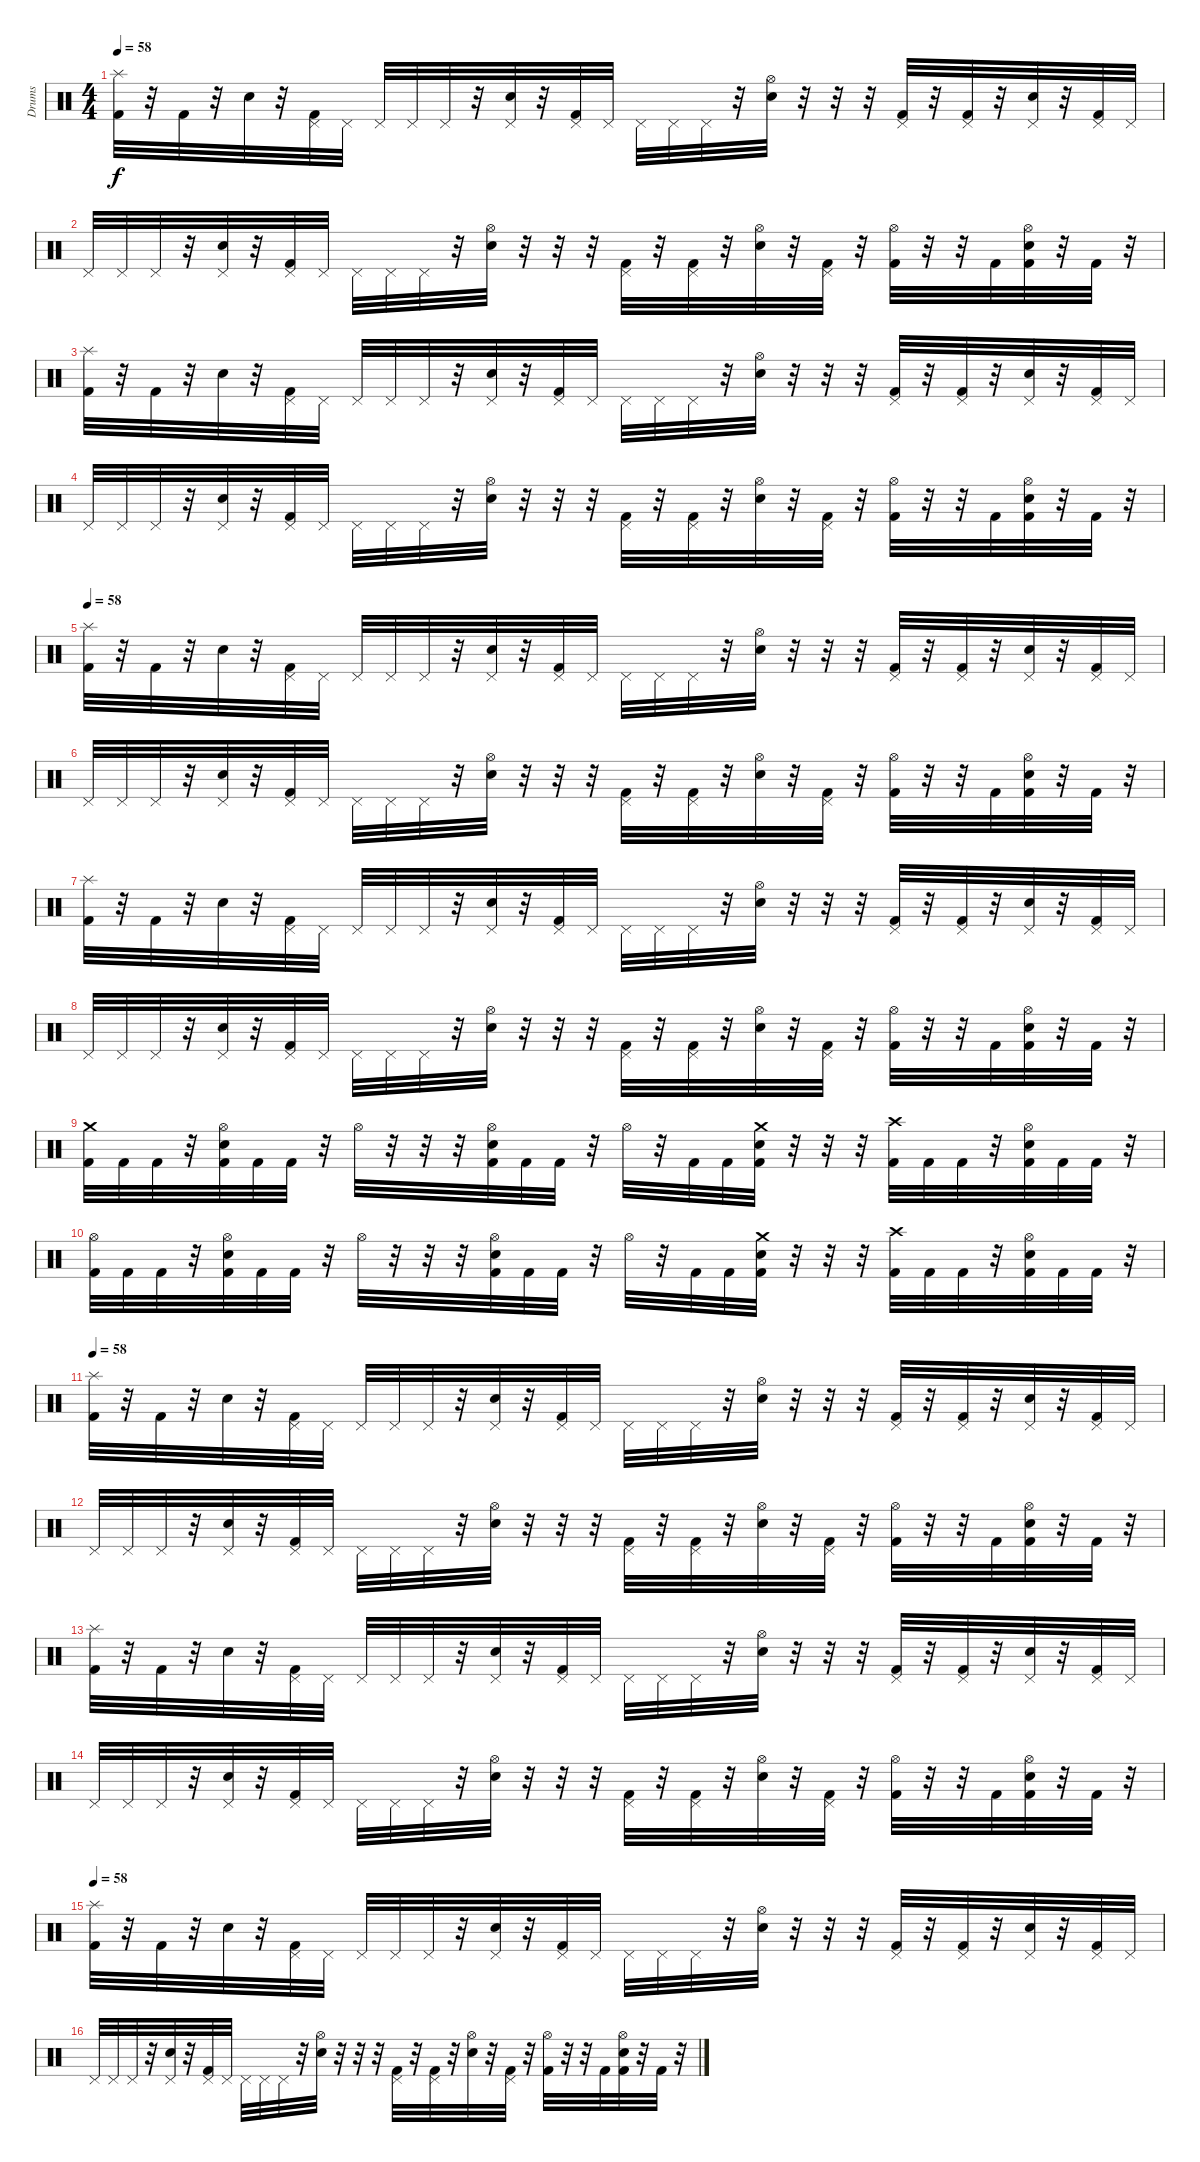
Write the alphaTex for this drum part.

\track ("Drums" "Drums") {instrument percussion}
\staff {score}
\articulation defaults
\ts (4 4)
\tempo 58
\clef neutral
\ks c
("Splash (hit)" "Kick (hit) 2").32{dy f} r.32 "Kick (hit) 2".32 r.32 "Electric Snare (hit)".32 r.32 ("Pedal Hi-Hat (hit)" "Kick (hit) 2").32 "Pedal Hi-Hat (hit)".32 "Pedal Hi-Hat (hit)".32 "Pedal Hi-Hat (hit)".32 "Pedal Hi-Hat (hit)".32 r.32 ("Pedal Hi-Hat (hit)" "Electric Snare (hit)").32 r.32 ("Pedal Hi-Hat (hit)" "Kick (hit) 2").32 "Pedal Hi-Hat (hit)".32 "Pedal Hi-Hat (hit)".32 "Pedal Hi-Hat (hit)".32 "Pedal Hi-Hat (hit)".32 r.32 ("Hi-Hat (open)" "Electric Snare (hit)").32 r.32 r.32 r.32 ("Pedal Hi-Hat (hit)" "Kick (hit) 2").32 r.32 ("Pedal Hi-Hat (hit)" "Kick (hit) 2").32 r.32 ("Pedal Hi-Hat (hit)" "Electric Snare (hit)").32 r.32 ("Pedal Hi-Hat (hit)" "Kick (hit) 2").32 "Pedal Hi-Hat (hit)".32 |
"Pedal Hi-Hat (hit)".32 "Pedal Hi-Hat (hit)".32 "Pedal Hi-Hat (hit)".32 r.32 ("Pedal Hi-Hat (hit)" "Electric Snare (hit)").32 r.32 ("Pedal Hi-Hat (hit)" "Kick (hit) 2").32 "Pedal Hi-Hat (hit)".32 "Pedal Hi-Hat (hit)".32 "Pedal Hi-Hat (hit)".32 "Pedal Hi-Hat (hit)".32 r.32 ("Hi-Hat (open)" "Electric Snare (hit)").32 r.32 r.32 r.32 ("Pedal Hi-Hat (hit)" "Kick (hit) 2").32 r.32 ("Pedal Hi-Hat (hit)" "Kick (hit) 2").32 r.32 ("Hi-Hat (open)" "Electric Snare (hit)").32 r.32 ("Pedal Hi-Hat (hit)" "Kick (hit) 2").32 r.32 ("Hi-Hat (open)" "Kick (hit) 2").32 r.32 r.32 "Kick (hit) 2".32 ("Hi-Hat (open)" "Electric Snare (hit)" "Kick (hit) 2").32 r.32 "Kick (hit) 2".32 r.32 |
("Splash (hit)" "Kick (hit) 2").32 r.32 "Kick (hit) 2".32 r.32 "Electric Snare (hit)".32 r.32 ("Pedal Hi-Hat (hit)" "Kick (hit) 2").32 "Pedal Hi-Hat (hit)".32 "Pedal Hi-Hat (hit)".32 "Pedal Hi-Hat (hit)".32 "Pedal Hi-Hat (hit)".32 r.32 ("Pedal Hi-Hat (hit)" "Electric Snare (hit)").32 r.32 ("Pedal Hi-Hat (hit)" "Kick (hit) 2").32 "Pedal Hi-Hat (hit)".32 "Pedal Hi-Hat (hit)".32 "Pedal Hi-Hat (hit)".32 "Pedal Hi-Hat (hit)".32 r.32 ("Hi-Hat (open)" "Electric Snare (hit)").32 r.32 r.32 r.32 ("Pedal Hi-Hat (hit)" "Kick (hit) 2").32 r.32 ("Pedal Hi-Hat (hit)" "Kick (hit) 2").32 r.32 ("Pedal Hi-Hat (hit)" "Electric Snare (hit)").32 r.32 ("Pedal Hi-Hat (hit)" "Kick (hit) 2").32 "Pedal Hi-Hat (hit)".32 |
"Pedal Hi-Hat (hit)".32 "Pedal Hi-Hat (hit)".32 "Pedal Hi-Hat (hit)".32 r.32 ("Pedal Hi-Hat (hit)" "Electric Snare (hit)").32 r.32 ("Pedal Hi-Hat (hit)" "Kick (hit) 2").32 "Pedal Hi-Hat (hit)".32 "Pedal Hi-Hat (hit)".32 "Pedal Hi-Hat (hit)".32 "Pedal Hi-Hat (hit)".32 r.32 ("Hi-Hat (open)" "Electric Snare (hit)").32 r.32 r.32 r.32 ("Pedal Hi-Hat (hit)" "Kick (hit) 2").32 r.32 ("Pedal Hi-Hat (hit)" "Kick (hit) 2").32 r.32 ("Hi-Hat (open)" "Electric Snare (hit)").32 r.32 ("Pedal Hi-Hat (hit)" "Kick (hit) 2").32 r.32 ("Hi-Hat (open)" "Kick (hit) 2").32 r.32 r.32 "Kick (hit) 2".32 ("Hi-Hat (open)" "Electric Snare (hit)" "Kick (hit) 2").32 r.32 "Kick (hit) 2".32 r.32 |
\tempo 58
("Splash (hit)" "Kick (hit) 2").32 r.32 "Kick (hit) 2".32 r.32 "Electric Snare (hit)".32 r.32 ("Pedal Hi-Hat (hit)" "Kick (hit) 2").32 "Pedal Hi-Hat (hit)".32 "Pedal Hi-Hat (hit)".32 "Pedal Hi-Hat (hit)".32 "Pedal Hi-Hat (hit)".32 r.32 ("Pedal Hi-Hat (hit)" "Electric Snare (hit)").32 r.32 ("Pedal Hi-Hat (hit)" "Kick (hit) 2").32 "Pedal Hi-Hat (hit)".32 "Pedal Hi-Hat (hit)".32 "Pedal Hi-Hat (hit)".32 "Pedal Hi-Hat (hit)".32 r.32 ("Hi-Hat (open)" "Electric Snare (hit)").32 r.32 r.32 r.32 ("Pedal Hi-Hat (hit)" "Kick (hit) 2").32 r.32 ("Pedal Hi-Hat (hit)" "Kick (hit) 2").32 r.32 ("Pedal Hi-Hat (hit)" "Electric Snare (hit)").32 r.32 ("Pedal Hi-Hat (hit)" "Kick (hit) 2").32 "Pedal Hi-Hat (hit)".32 |
"Pedal Hi-Hat (hit)".32 "Pedal Hi-Hat (hit)".32 "Pedal Hi-Hat (hit)".32 r.32 ("Pedal Hi-Hat (hit)" "Electric Snare (hit)").32 r.32 ("Pedal Hi-Hat (hit)" "Kick (hit) 2").32 "Pedal Hi-Hat (hit)".32 "Pedal Hi-Hat (hit)".32 "Pedal Hi-Hat (hit)".32 "Pedal Hi-Hat (hit)".32 r.32 ("Hi-Hat (open)" "Electric Snare (hit)").32 r.32 r.32 r.32 ("Pedal Hi-Hat (hit)" "Kick (hit) 2").32 r.32 ("Pedal Hi-Hat (hit)" "Kick (hit) 2").32 r.32 ("Hi-Hat (open)" "Electric Snare (hit)").32 r.32 ("Pedal Hi-Hat (hit)" "Kick (hit) 2").32 r.32 ("Hi-Hat (open)" "Kick (hit) 2").32 r.32 r.32 "Kick (hit) 2".32 ("Hi-Hat (open)" "Electric Snare (hit)" "Kick (hit) 2").32 r.32 "Kick (hit) 2".32 r.32 |
("Splash (hit)" "Kick (hit) 2").32 r.32 "Kick (hit) 2".32 r.32 "Electric Snare (hit)".32 r.32 ("Pedal Hi-Hat (hit)" "Kick (hit) 2").32 "Pedal Hi-Hat (hit)".32 "Pedal Hi-Hat (hit)".32 "Pedal Hi-Hat (hit)".32 "Pedal Hi-Hat (hit)".32 r.32 ("Pedal Hi-Hat (hit)" "Electric Snare (hit)").32 r.32 ("Pedal Hi-Hat (hit)" "Kick (hit) 2").32 "Pedal Hi-Hat (hit)".32 "Pedal Hi-Hat (hit)".32 "Pedal Hi-Hat (hit)".32 "Pedal Hi-Hat (hit)".32 r.32 ("Hi-Hat (open)" "Electric Snare (hit)").32 r.32 r.32 r.32 ("Pedal Hi-Hat (hit)" "Kick (hit) 2").32 r.32 ("Pedal Hi-Hat (hit)" "Kick (hit) 2").32 r.32 ("Pedal Hi-Hat (hit)" "Electric Snare (hit)").32 r.32 ("Pedal Hi-Hat (hit)" "Kick (hit) 2").32 "Pedal Hi-Hat (hit)".32 |
"Pedal Hi-Hat (hit)".32 "Pedal Hi-Hat (hit)".32 "Pedal Hi-Hat (hit)".32 r.32 ("Pedal Hi-Hat (hit)" "Electric Snare (hit)").32 r.32 ("Pedal Hi-Hat (hit)" "Kick (hit) 2").32 "Pedal Hi-Hat (hit)".32 "Pedal Hi-Hat (hit)".32 "Pedal Hi-Hat (hit)".32 "Pedal Hi-Hat (hit)".32 r.32 ("Hi-Hat (open)" "Electric Snare (hit)").32 r.32 r.32 r.32 ("Pedal Hi-Hat (hit)" "Kick (hit) 2").32 r.32 ("Pedal Hi-Hat (hit)" "Kick (hit) 2").32 r.32 ("Hi-Hat (open)" "Electric Snare (hit)").32 r.32 ("Pedal Hi-Hat (hit)" "Kick (hit) 2").32 r.32 ("Hi-Hat (open)" "Kick (hit) 2").32 r.32 r.32 "Kick (hit) 2".32 ("Hi-Hat (open)" "Electric Snare (hit)" "Kick (hit) 2").32 r.32 "Kick (hit) 2".32 r.32 |
("Crash medium (hit)" "Kick (hit) 2").32 "Kick (hit) 2".32 "Kick (hit) 2".32 r.32 ("Hi-Hat (open)" "Electric Snare (hit)" "Kick (hit) 2").32 "Kick (hit) 2".32 "Kick (hit) 2".32 r.32 "Hi-Hat (open)".32 r.32 r.32 r.32 ("Hi-Hat (open)" "Electric Snare (hit)" "Kick (hit) 2").32 "Kick (hit) 2".32 "Kick (hit) 2".32 r.32 "Hi-Hat (open)".32 r.32 "Kick (hit) 2".32 "Kick (hit) 2".32 ("Crash medium (hit)" "Electric Snare (hit)" "Kick (hit) 2").32 r.32 r.32 r.32 ("Crash high (hit)" "Kick (hit) 2").32 "Kick (hit) 2".32 "Kick (hit) 2".32 r.32 ("Hi-Hat (open)" "Electric Snare (hit)" "Kick (hit) 2").32 "Kick (hit) 2".32 "Kick (hit) 2".32 r.32 |
("Hi-Hat (open)" "Kick (hit) 2").32 "Kick (hit) 2".32 "Kick (hit) 2".32 r.32 ("Hi-Hat (open)" "Electric Snare (hit)" "Kick (hit) 2").32 "Kick (hit) 2".32 "Kick (hit) 2".32 r.32 "Hi-Hat (open)".32 r.32 r.32 r.32 ("Hi-Hat (open)" "Electric Snare (hit)" "Kick (hit) 2").32 "Kick (hit) 2".32 "Kick (hit) 2".32 r.32 "Hi-Hat (open)".32 r.32 "Kick (hit) 2".32 "Kick (hit) 2".32 ("Crash medium (hit)" "Electric Snare (hit)" "Kick (hit) 2").32 r.32 r.32 r.32 ("Crash high (hit)" "Kick (hit) 2").32 "Kick (hit) 2".32 "Kick (hit) 2".32 r.32 ("Hi-Hat (open)" "Electric Snare (hit)" "Kick (hit) 2").32 "Kick (hit) 2".32 "Kick (hit) 2".32 r.32 |
\tempo 58
("Splash (hit)" "Kick (hit) 2").32 r.32 "Kick (hit) 2".32 r.32 "Electric Snare (hit)".32 r.32 ("Pedal Hi-Hat (hit)" "Kick (hit) 2").32 "Pedal Hi-Hat (hit)".32 "Pedal Hi-Hat (hit)".32 "Pedal Hi-Hat (hit)".32 "Pedal Hi-Hat (hit)".32 r.32 ("Pedal Hi-Hat (hit)" "Electric Snare (hit)").32 r.32 ("Pedal Hi-Hat (hit)" "Kick (hit) 2").32 "Pedal Hi-Hat (hit)".32 "Pedal Hi-Hat (hit)".32 "Pedal Hi-Hat (hit)".32 "Pedal Hi-Hat (hit)".32 r.32 ("Hi-Hat (open)" "Electric Snare (hit)").32 r.32 r.32 r.32 ("Pedal Hi-Hat (hit)" "Kick (hit) 2").32 r.32 ("Pedal Hi-Hat (hit)" "Kick (hit) 2").32 r.32 ("Pedal Hi-Hat (hit)" "Electric Snare (hit)").32 r.32 ("Pedal Hi-Hat (hit)" "Kick (hit) 2").32 "Pedal Hi-Hat (hit)".32 |
"Pedal Hi-Hat (hit)".32 "Pedal Hi-Hat (hit)".32 "Pedal Hi-Hat (hit)".32 r.32 ("Pedal Hi-Hat (hit)" "Electric Snare (hit)").32 r.32 ("Pedal Hi-Hat (hit)" "Kick (hit) 2").32 "Pedal Hi-Hat (hit)".32 "Pedal Hi-Hat (hit)".32 "Pedal Hi-Hat (hit)".32 "Pedal Hi-Hat (hit)".32 r.32 ("Hi-Hat (open)" "Electric Snare (hit)").32 r.32 r.32 r.32 ("Pedal Hi-Hat (hit)" "Kick (hit) 2").32 r.32 ("Pedal Hi-Hat (hit)" "Kick (hit) 2").32 r.32 ("Hi-Hat (open)" "Electric Snare (hit)").32 r.32 ("Pedal Hi-Hat (hit)" "Kick (hit) 2").32 r.32 ("Hi-Hat (open)" "Kick (hit) 2").32 r.32 r.32 "Kick (hit) 2".32 ("Hi-Hat (open)" "Electric Snare (hit)" "Kick (hit) 2").32 r.32 "Kick (hit) 2".32 r.32 |
("Splash (hit)" "Kick (hit) 2").32 r.32 "Kick (hit) 2".32 r.32 "Electric Snare (hit)".32 r.32 ("Pedal Hi-Hat (hit)" "Kick (hit) 2").32 "Pedal Hi-Hat (hit)".32 "Pedal Hi-Hat (hit)".32 "Pedal Hi-Hat (hit)".32 "Pedal Hi-Hat (hit)".32 r.32 ("Pedal Hi-Hat (hit)" "Electric Snare (hit)").32 r.32 ("Pedal Hi-Hat (hit)" "Kick (hit) 2").32 "Pedal Hi-Hat (hit)".32 "Pedal Hi-Hat (hit)".32 "Pedal Hi-Hat (hit)".32 "Pedal Hi-Hat (hit)".32 r.32 ("Hi-Hat (open)" "Electric Snare (hit)").32 r.32 r.32 r.32 ("Pedal Hi-Hat (hit)" "Kick (hit) 2").32 r.32 ("Pedal Hi-Hat (hit)" "Kick (hit) 2").32 r.32 ("Pedal Hi-Hat (hit)" "Electric Snare (hit)").32 r.32 ("Pedal Hi-Hat (hit)" "Kick (hit) 2").32 "Pedal Hi-Hat (hit)".32 |
"Pedal Hi-Hat (hit)".32 "Pedal Hi-Hat (hit)".32 "Pedal Hi-Hat (hit)".32 r.32 ("Pedal Hi-Hat (hit)" "Electric Snare (hit)").32 r.32 ("Pedal Hi-Hat (hit)" "Kick (hit) 2").32 "Pedal Hi-Hat (hit)".32 "Pedal Hi-Hat (hit)".32 "Pedal Hi-Hat (hit)".32 "Pedal Hi-Hat (hit)".32 r.32 ("Hi-Hat (open)" "Electric Snare (hit)").32 r.32 r.32 r.32 ("Pedal Hi-Hat (hit)" "Kick (hit) 2").32 r.32 ("Pedal Hi-Hat (hit)" "Kick (hit) 2").32 r.32 ("Hi-Hat (open)" "Electric Snare (hit)").32 r.32 ("Pedal Hi-Hat (hit)" "Kick (hit) 2").32 r.32 ("Hi-Hat (open)" "Kick (hit) 2").32 r.32 r.32 "Kick (hit) 2".32 ("Hi-Hat (open)" "Electric Snare (hit)" "Kick (hit) 2").32 r.32 "Kick (hit) 2".32 r.32 |
\tempo 58
("Splash (hit)" "Kick (hit) 2").32 r.32 "Kick (hit) 2".32 r.32 "Electric Snare (hit)".32 r.32 ("Pedal Hi-Hat (hit)" "Kick (hit) 2").32 "Pedal Hi-Hat (hit)".32 "Pedal Hi-Hat (hit)".32 "Pedal Hi-Hat (hit)".32 "Pedal Hi-Hat (hit)".32 r.32 ("Pedal Hi-Hat (hit)" "Electric Snare (hit)").32 r.32 ("Pedal Hi-Hat (hit)" "Kick (hit) 2").32 "Pedal Hi-Hat (hit)".32 "Pedal Hi-Hat (hit)".32 "Pedal Hi-Hat (hit)".32 "Pedal Hi-Hat (hit)".32 r.32 ("Hi-Hat (open)" "Electric Snare (hit)").32 r.32 r.32 r.32 ("Pedal Hi-Hat (hit)" "Kick (hit) 2").32 r.32 ("Pedal Hi-Hat (hit)" "Kick (hit) 2").32 r.32 ("Pedal Hi-Hat (hit)" "Electric Snare (hit)").32 r.32 ("Pedal Hi-Hat (hit)" "Kick (hit) 2").32 "Pedal Hi-Hat (hit)".32 |
"Pedal Hi-Hat (hit)".32 "Pedal Hi-Hat (hit)".32 "Pedal Hi-Hat (hit)".32 r.32 ("Pedal Hi-Hat (hit)" "Electric Snare (hit)").32 r.32 ("Pedal Hi-Hat (hit)" "Kick (hit) 2").32 "Pedal Hi-Hat (hit)".32 "Pedal Hi-Hat (hit)".32 "Pedal Hi-Hat (hit)".32 "Pedal Hi-Hat (hit)".32 r.32 ("Hi-Hat (open)" "Electric Snare (hit)").32 r.32 r.32 r.32 ("Pedal Hi-Hat (hit)" "Kick (hit) 2").32 r.32 ("Pedal Hi-Hat (hit)" "Kick (hit) 2").32 r.32 ("Hi-Hat (open)" "Electric Snare (hit)").32 r.32 ("Pedal Hi-Hat (hit)" "Kick (hit) 2").32 r.32 ("Hi-Hat (open)" "Kick (hit) 2").32 r.32 r.32 "Kick (hit) 2".32 ("Hi-Hat (open)" "Electric Snare (hit)" "Kick (hit) 2").32 r.32 "Kick (hit) 2".32 r.32
